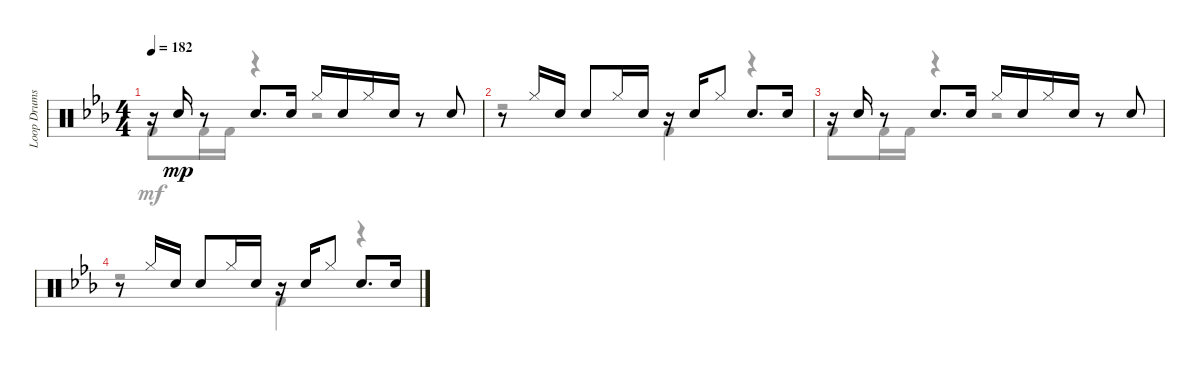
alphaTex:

\track ("Loop Drums" "Loop Drums") {instrument percussion}
\staff {score}
\articulation defaults
\voice
\ts (4 4)
\tempo 182
\clef neutral
\ks eb
r.16{dy mp} "Electric Snare (hit)".16 r.8 "Electric Snare (hit)".8{d} "Electric Snare (hit)".16 "Hi-Hat (closed)".16 "Electric Snare (hit)".16 "Hi-Hat (closed)".16 "Electric Snare (hit)".16 r.8 "Electric Snare (hit)".8 |
r.8 "Hi-Hat (closed)".16 "Electric Snare (hit)".16 "Electric Snare (hit)".8 "Hi-Hat (closed)".16 "Electric Snare (hit)".16 r.16 "Electric Snare (hit)".16 "Hi-Hat (closed)".8 "Electric Snare (hit)".8{d} "Electric Snare (hit)".16 |
r.16 "Electric Snare (hit)".16 r.8 "Electric Snare (hit)".8{d} "Electric Snare (hit)".16 "Hi-Hat (closed)".16 "Electric Snare (hit)".16 "Hi-Hat (closed)".16 "Electric Snare (hit)".16 r.8 "Electric Snare (hit)".8 |
r.8 "Hi-Hat (closed)".16 "Electric Snare (hit)".16 "Electric Snare (hit)".8 "Hi-Hat (closed)".16 "Electric Snare (hit)".16 r.16 "Electric Snare (hit)".16 "Hi-Hat (closed)".8 "Electric Snare (hit)".8{d} "Electric Snare (hit)".16
\voice
\clef neutral
\ottava regular
\simile none
\ks eb "Kick (hit) 2".8{dy mf} "Kick (hit) 2".16 "Kick (hit) 2".16
r.4 r.2 |
r.2 "Kick (hit) 2".4 r.4 |
"Kick (hit) 2".8 "Kick (hit) 2".16 "Kick (hit) 2".16 r.4 r.2 |
r.2 "Kick (hit) 2".4 r.4
